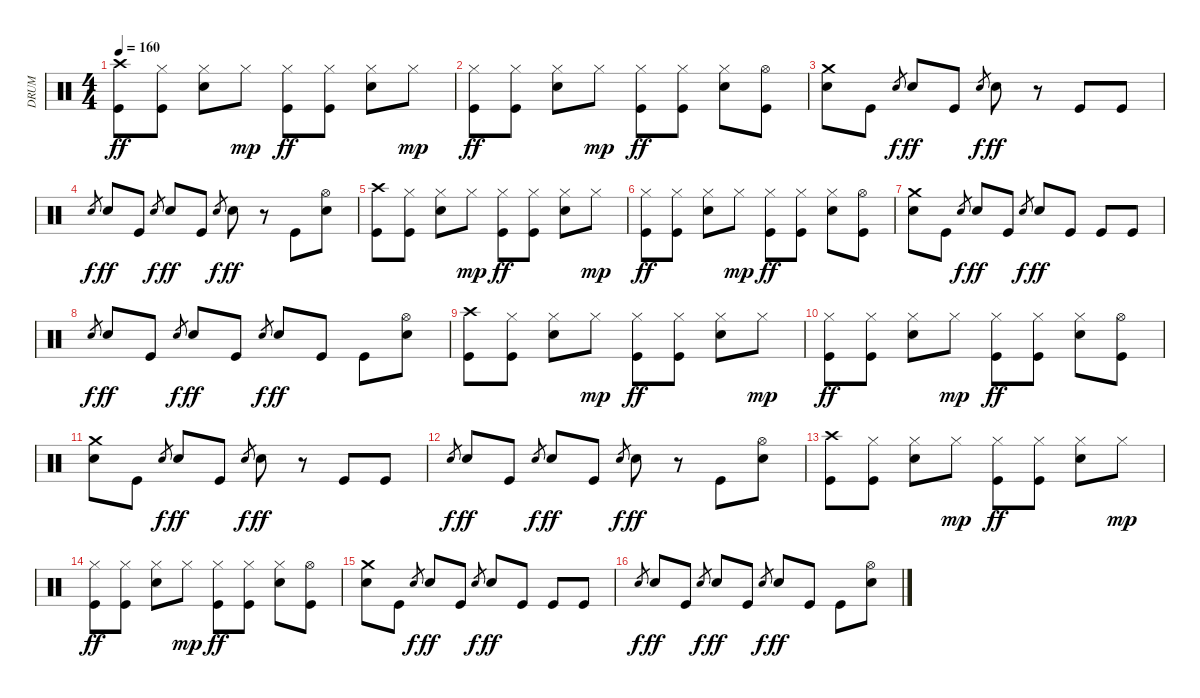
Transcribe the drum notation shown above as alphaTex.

\track ("DRUM" "DRUM") {instrument percussion}
\staff {score}
\articulation defaults
\ts (4 4)
\tempo 160
\clef neutral
\ks c
("Crash high (hit)" "Kick (hit)").8{dy ff} ("Hi-Hat (closed)" "Kick (hit)").8 ("Hi-Hat (closed)" "Electric Snare (hit)").8 "Hi-Hat (closed)".8{dy mp} ("Hi-Hat (closed)" "Kick (hit)").8{dy ff} ("Hi-Hat (closed)" "Kick (hit)").8 ("Hi-Hat (closed)" "Electric Snare (hit)").8 "Hi-Hat (closed)".8{dy mp} |
("Hi-Hat (closed)" "Kick (hit)").8{dy ff} ("Hi-Hat (closed)" "Kick (hit)").8 ("Hi-Hat (closed)" "Electric Snare (hit)").8 "Hi-Hat (closed)".8{dy mp} ("Hi-Hat (closed)" "Kick (hit)").8{dy ff} ("Hi-Hat (closed)" "Kick (hit)").8 ("Hi-Hat (closed)" "Electric Snare (hit)").8 ("Hi-Hat (open)" "Kick (hit)").8 |
("Crash medium (hit)" "Electric Snare (hit)").8 "Kick (hit)".8 "Electric Snare (hit)".8{gr dy f} "Electric Snare (hit)".8{dy ff} "Kick (hit)".8 "Electric Snare (hit)".8{gr dy f} "Electric Snare (hit)".8{dy ff} r.8 "Kick (hit)".8 "Kick (hit)".8 |
"Electric Snare (hit)".8{gr dy f} "Electric Snare (hit)".8{dy ff} "Kick (hit)".8 "Electric Snare (hit)".8{gr dy f} "Electric Snare (hit)".8{dy ff} "Kick (hit)".8 "Electric Snare (hit)".8{gr dy f} "Electric Snare (hit)".8{dy ff} r.8 "Kick (hit)".8 ("Hi-Hat (open)" "Electric Snare (hit)").8 |
("Crash high (hit)" "Kick (hit)").8 ("Hi-Hat (closed)" "Kick (hit)").8 ("Hi-Hat (closed)" "Electric Snare (hit)").8 "Hi-Hat (closed)".8{dy mp} ("Hi-Hat (closed)" "Kick (hit)").8{dy ff} ("Hi-Hat (closed)" "Kick (hit)").8 ("Hi-Hat (closed)" "Electric Snare (hit)").8 "Hi-Hat (closed)".8{dy mp} |
("Hi-Hat (closed)" "Kick (hit)").8{dy ff} ("Hi-Hat (closed)" "Kick (hit)").8 ("Hi-Hat (closed)" "Electric Snare (hit)").8 "Hi-Hat (closed)".8{dy mp} ("Hi-Hat (closed)" "Kick (hit)").8{dy ff} ("Hi-Hat (closed)" "Kick (hit)").8 ("Hi-Hat (closed)" "Electric Snare (hit)").8 ("Hi-Hat (open)" "Kick (hit)").8 |
("Crash medium (hit)" "Electric Snare (hit)").8 "Kick (hit)".8 "Electric Snare (hit)".8{gr dy f} "Electric Snare (hit)".8{dy ff} "Kick (hit)".8 "Electric Snare (hit)".8{gr dy f} "Electric Snare (hit)".8{dy ff} "Kick (hit)".8 "Kick (hit)".8 "Kick (hit)".8 |
"Electric Snare (hit)".8{gr dy f} "Electric Snare (hit)".8{dy ff} "Kick (hit)".8 "Electric Snare (hit)".8{gr dy f} "Electric Snare (hit)".8{dy ff} "Kick (hit)".8 "Electric Snare (hit)".8{gr dy f} "Electric Snare (hit)".8{dy ff} "Kick (hit)".8 "Kick (hit)".8 ("Hi-Hat (open)" "Electric Snare (hit)").8 |
("Crash high (hit)" "Kick (hit)").8 ("Hi-Hat (closed)" "Kick (hit)").8 ("Hi-Hat (closed)" "Electric Snare (hit)").8 "Hi-Hat (closed)".8{dy mp} ("Hi-Hat (closed)" "Kick (hit)").8{dy ff} ("Hi-Hat (closed)" "Kick (hit)").8 ("Hi-Hat (closed)" "Electric Snare (hit)").8 "Hi-Hat (closed)".8{dy mp} |
("Hi-Hat (closed)" "Kick (hit)").8{dy ff} ("Hi-Hat (closed)" "Kick (hit)").8 ("Hi-Hat (closed)" "Electric Snare (hit)").8 "Hi-Hat (closed)".8{dy mp} ("Hi-Hat (closed)" "Kick (hit)").8{dy ff} ("Hi-Hat (closed)" "Kick (hit)").8 ("Hi-Hat (closed)" "Electric Snare (hit)").8 ("Hi-Hat (open)" "Kick (hit)").8 |
("Crash medium (hit)" "Electric Snare (hit)").8 "Kick (hit)".8 "Electric Snare (hit)".8{gr dy f} "Electric Snare (hit)".8{dy ff} "Kick (hit)".8 "Electric Snare (hit)".8{gr dy f} "Electric Snare (hit)".8{dy ff} r.8 "Kick (hit)".8 "Kick (hit)".8 |
"Electric Snare (hit)".8{gr dy f} "Electric Snare (hit)".8{dy ff} "Kick (hit)".8 "Electric Snare (hit)".8{gr dy f} "Electric Snare (hit)".8{dy ff} "Kick (hit)".8 "Electric Snare (hit)".8{gr dy f} "Electric Snare (hit)".8{dy ff} r.8 "Kick (hit)".8 ("Hi-Hat (open)" "Electric Snare (hit)").8 |
("Crash high (hit)" "Kick (hit)").8 ("Hi-Hat (closed)" "Kick (hit)").8 ("Hi-Hat (closed)" "Electric Snare (hit)").8 "Hi-Hat (closed)".8{dy mp} ("Hi-Hat (closed)" "Kick (hit)").8{dy ff} ("Hi-Hat (closed)" "Kick (hit)").8 ("Hi-Hat (closed)" "Electric Snare (hit)").8 "Hi-Hat (closed)".8{dy mp} |
("Hi-Hat (closed)" "Kick (hit)").8{dy ff} ("Hi-Hat (closed)" "Kick (hit)").8 ("Hi-Hat (closed)" "Electric Snare (hit)").8 "Hi-Hat (closed)".8{dy mp} ("Hi-Hat (closed)" "Kick (hit)").8{dy ff} ("Hi-Hat (closed)" "Kick (hit)").8 ("Hi-Hat (closed)" "Electric Snare (hit)").8 ("Hi-Hat (open)" "Kick (hit)").8 |
("Crash medium (hit)" "Electric Snare (hit)").8 "Kick (hit)".8 "Electric Snare (hit)".8{gr dy f} "Electric Snare (hit)".8{dy ff} "Kick (hit)".8 "Electric Snare (hit)".8{gr dy f} "Electric Snare (hit)".8{dy ff} "Kick (hit)".8 "Kick (hit)".8 "Kick (hit)".8 |
"Electric Snare (hit)".8{gr dy f} "Electric Snare (hit)".8{dy ff} "Kick (hit)".8 "Electric Snare (hit)".8{gr dy f} "Electric Snare (hit)".8{dy ff} "Kick (hit)".8 "Electric Snare (hit)".8{gr dy f} "Electric Snare (hit)".8{dy ff} "Kick (hit)".8 "Kick (hit)".8 ("Hi-Hat (open)" "Electric Snare (hit)").8
